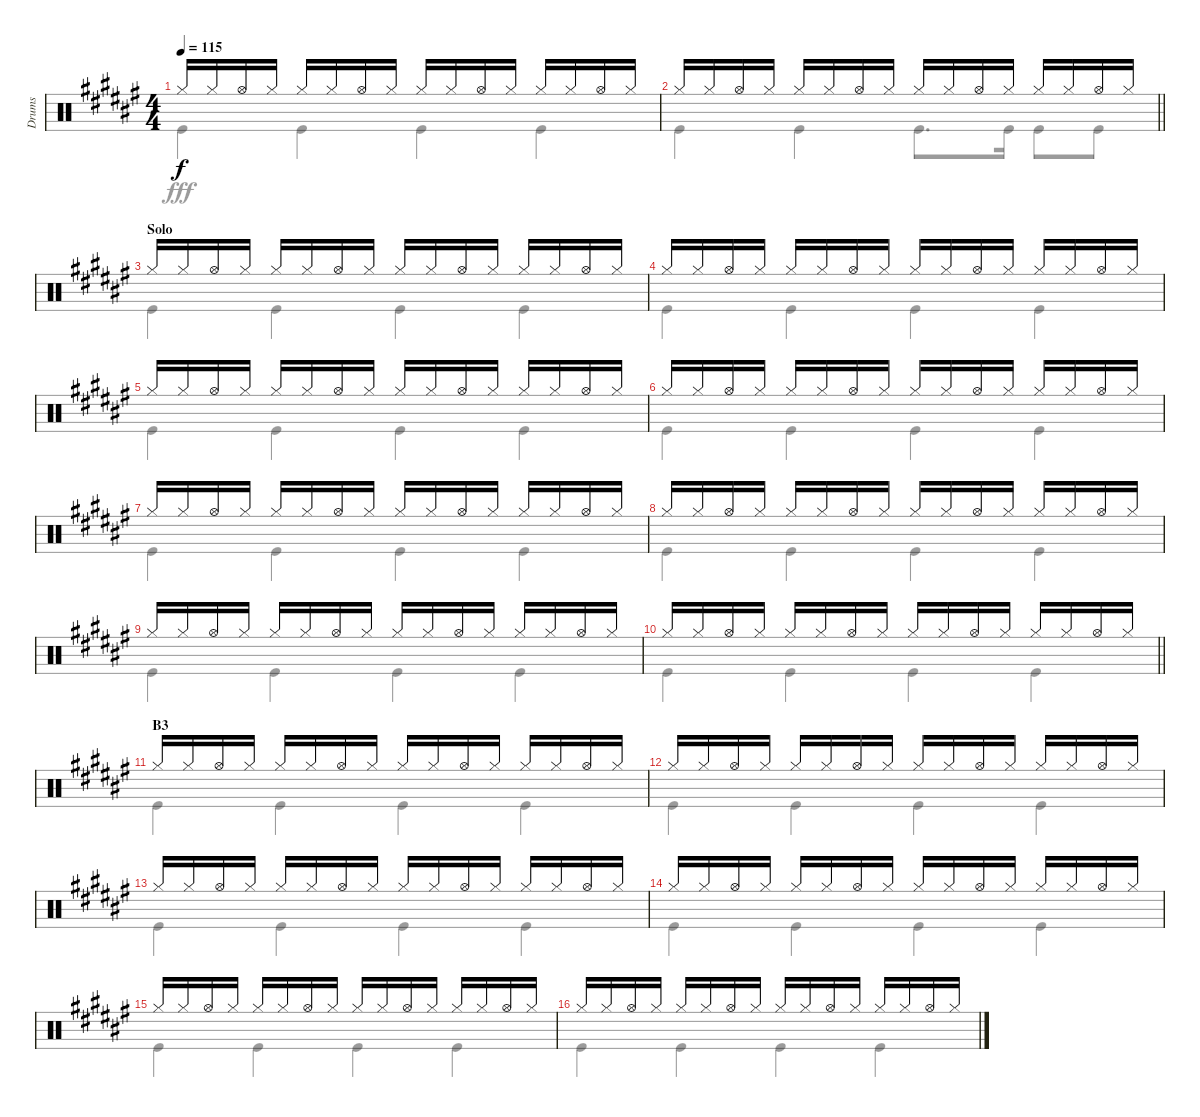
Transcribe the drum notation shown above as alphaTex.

\track ("Drums" "Drums") {instrument percussion}
\staff {score}
\articulation defaults
\voice
\ts (4 4)
\tempo 115
\clef neutral
\ks f# "Hi-Hat (closed)".16{dy f} "Hi-Hat (closed)".16 "Hi-Hat (open)".16 "Hi-Hat (closed)".16 "Hi-Hat (closed)".16 "Hi-Hat (closed)".16 "Hi-Hat (open)".16 "Hi-Hat (closed)".16 "Hi-Hat (closed)".16 "Hi-Hat (closed)".16 "Hi-Hat (open)".16 "Hi-Hat (closed)".16 "Hi-Hat (closed)".16 "Hi-Hat (closed)".16 "Hi-Hat (open)".16 "Hi-Hat (closed)".16
|
\barLineRight lightlight "Hi-Hat (closed)".16 "Hi-Hat (closed)".16 "Hi-Hat (open)".16 "Hi-Hat (closed)".16 "Hi-Hat (closed)".16 "Hi-Hat (closed)".16 "Hi-Hat (open)".16 "Hi-Hat (closed)".16 "Hi-Hat (closed)".16 "Hi-Hat (closed)".16 "Hi-Hat (open)".16 "Hi-Hat (closed)".16 "Hi-Hat (closed)".16 "Hi-Hat (closed)".16 "Hi-Hat (open)".16 "Hi-Hat (closed)".16
|
\section ("" "Solo")
"Hi-Hat (closed)".16 "Hi-Hat (closed)".16 "Hi-Hat (open)".16 "Hi-Hat (closed)".16 "Hi-Hat (closed)".16 "Hi-Hat (closed)".16 "Hi-Hat (open)".16 "Hi-Hat (closed)".16 "Hi-Hat (closed)".16 "Hi-Hat (closed)".16 "Hi-Hat (open)".16 "Hi-Hat (closed)".16 "Hi-Hat (closed)".16 "Hi-Hat (closed)".16 "Hi-Hat (open)".16 "Hi-Hat (closed)".16 |
"Hi-Hat (closed)".16 "Hi-Hat (closed)".16 "Hi-Hat (open)".16 "Hi-Hat (closed)".16 "Hi-Hat (closed)".16 "Hi-Hat (closed)".16 "Hi-Hat (open)".16 "Hi-Hat (closed)".16 "Hi-Hat (closed)".16 "Hi-Hat (closed)".16 "Hi-Hat (open)".16 "Hi-Hat (closed)".16 "Hi-Hat (closed)".16 "Hi-Hat (closed)".16 "Hi-Hat (open)".16 "Hi-Hat (closed)".16 |
"Hi-Hat (closed)".16 "Hi-Hat (closed)".16 "Hi-Hat (open)".16 "Hi-Hat (closed)".16 "Hi-Hat (closed)".16 "Hi-Hat (closed)".16 "Hi-Hat (open)".16 "Hi-Hat (closed)".16 "Hi-Hat (closed)".16 "Hi-Hat (closed)".16 "Hi-Hat (open)".16 "Hi-Hat (closed)".16 "Hi-Hat (closed)".16 "Hi-Hat (closed)".16 "Hi-Hat (open)".16 "Hi-Hat (closed)".16 |
"Hi-Hat (closed)".16 "Hi-Hat (closed)".16 "Hi-Hat (open)".16 "Hi-Hat (closed)".16 "Hi-Hat (closed)".16 "Hi-Hat (closed)".16 "Hi-Hat (open)".16 "Hi-Hat (closed)".16 "Hi-Hat (closed)".16 "Hi-Hat (closed)".16 "Hi-Hat (open)".16 "Hi-Hat (closed)".16 "Hi-Hat (closed)".16 "Hi-Hat (closed)".16 "Hi-Hat (open)".16 "Hi-Hat (closed)".16 |
"Hi-Hat (closed)".16 "Hi-Hat (closed)".16 "Hi-Hat (open)".16 "Hi-Hat (closed)".16 "Hi-Hat (closed)".16 "Hi-Hat (closed)".16 "Hi-Hat (open)".16 "Hi-Hat (closed)".16 "Hi-Hat (closed)".16 "Hi-Hat (closed)".16 "Hi-Hat (open)".16 "Hi-Hat (closed)".16 "Hi-Hat (closed)".16 "Hi-Hat (closed)".16 "Hi-Hat (open)".16 "Hi-Hat (closed)".16 |
"Hi-Hat (closed)".16 "Hi-Hat (closed)".16 "Hi-Hat (open)".16 "Hi-Hat (closed)".16 "Hi-Hat (closed)".16 "Hi-Hat (closed)".16 "Hi-Hat (open)".16 "Hi-Hat (closed)".16 "Hi-Hat (closed)".16 "Hi-Hat (closed)".16 "Hi-Hat (open)".16 "Hi-Hat (closed)".16 "Hi-Hat (closed)".16 "Hi-Hat (closed)".16 "Hi-Hat (open)".16 "Hi-Hat (closed)".16 |
"Hi-Hat (closed)".16 "Hi-Hat (closed)".16 "Hi-Hat (open)".16 "Hi-Hat (closed)".16 "Hi-Hat (closed)".16 "Hi-Hat (closed)".16 "Hi-Hat (open)".16 "Hi-Hat (closed)".16 "Hi-Hat (closed)".16 "Hi-Hat (closed)".16 "Hi-Hat (open)".16 "Hi-Hat (closed)".16 "Hi-Hat (closed)".16 "Hi-Hat (closed)".16 "Hi-Hat (open)".16 "Hi-Hat (closed)".16 |
\barLineRight lightlight "Hi-Hat (closed)".16 "Hi-Hat (closed)".16 "Hi-Hat (open)".16 "Hi-Hat (closed)".16 "Hi-Hat (closed)".16 "Hi-Hat (closed)".16 "Hi-Hat (open)".16 "Hi-Hat (closed)".16 "Hi-Hat (closed)".16 "Hi-Hat (closed)".16 "Hi-Hat (open)".16 "Hi-Hat (closed)".16 "Hi-Hat (closed)".16 "Hi-Hat (closed)".16 "Hi-Hat (open)".16 "Hi-Hat (closed)".16
|
\section ("" "B3")
"Hi-Hat (closed)".16 "Hi-Hat (closed)".16 "Hi-Hat (open)".16 "Hi-Hat (closed)".16 "Hi-Hat (closed)".16 "Hi-Hat (closed)".16 "Hi-Hat (open)".16 "Hi-Hat (closed)".16 "Hi-Hat (closed)".16 "Hi-Hat (closed)".16 "Hi-Hat (open)".16 "Hi-Hat (closed)".16 "Hi-Hat (closed)".16 "Hi-Hat (closed)".16 "Hi-Hat (open)".16 "Hi-Hat (closed)".16 |
"Hi-Hat (closed)".16 "Hi-Hat (closed)".16 "Hi-Hat (open)".16 "Hi-Hat (closed)".16 "Hi-Hat (closed)".16 "Hi-Hat (closed)".16 "Hi-Hat (open)".16 "Hi-Hat (closed)".16 "Hi-Hat (closed)".16 "Hi-Hat (closed)".16 "Hi-Hat (open)".16 "Hi-Hat (closed)".16 "Hi-Hat (closed)".16 "Hi-Hat (closed)".16 "Hi-Hat (open)".16 "Hi-Hat (closed)".16 |
"Hi-Hat (closed)".16 "Hi-Hat (closed)".16 "Hi-Hat (open)".16 "Hi-Hat (closed)".16 "Hi-Hat (closed)".16 "Hi-Hat (closed)".16 "Hi-Hat (open)".16 "Hi-Hat (closed)".16 "Hi-Hat (closed)".16 "Hi-Hat (closed)".16 "Hi-Hat (open)".16 "Hi-Hat (closed)".16 "Hi-Hat (closed)".16 "Hi-Hat (closed)".16 "Hi-Hat (open)".16 "Hi-Hat (closed)".16 |
"Hi-Hat (closed)".16 "Hi-Hat (closed)".16 "Hi-Hat (open)".16 "Hi-Hat (closed)".16 "Hi-Hat (closed)".16 "Hi-Hat (closed)".16 "Hi-Hat (open)".16 "Hi-Hat (closed)".16 "Hi-Hat (closed)".16 "Hi-Hat (closed)".16 "Hi-Hat (open)".16 "Hi-Hat (closed)".16 "Hi-Hat (closed)".16 "Hi-Hat (closed)".16 "Hi-Hat (open)".16 "Hi-Hat (closed)".16 |
"Hi-Hat (closed)".16 "Hi-Hat (closed)".16 "Hi-Hat (open)".16 "Hi-Hat (closed)".16 "Hi-Hat (closed)".16 "Hi-Hat (closed)".16 "Hi-Hat (open)".16 "Hi-Hat (closed)".16 "Hi-Hat (closed)".16 "Hi-Hat (closed)".16 "Hi-Hat (open)".16 "Hi-Hat (closed)".16 "Hi-Hat (closed)".16 "Hi-Hat (closed)".16 "Hi-Hat (open)".16 "Hi-Hat (closed)".16 |
"Hi-Hat (closed)".16 "Hi-Hat (closed)".16 "Hi-Hat (open)".16 "Hi-Hat (closed)".16 "Hi-Hat (closed)".16 "Hi-Hat (closed)".16 "Hi-Hat (open)".16 "Hi-Hat (closed)".16 "Hi-Hat (closed)".16 "Hi-Hat (closed)".16 "Hi-Hat (open)".16 "Hi-Hat (closed)".16 "Hi-Hat (closed)".16 "Hi-Hat (closed)".16 "Hi-Hat (open)".16 "Hi-Hat (closed)".16
\voice
\clef neutral
\ottava regular
\simile none
\ks f# "Kick (hit)".4{dy fff} "Kick (hit)".4 "Kick (hit)".4 "Kick (hit)".4
|
\barLineRight lightlight "Kick (hit)".4 "Kick (hit)".4 "Kick (hit)".8{d} "Kick (hit)".16 "Kick (hit)".8 "Kick (hit)".8
|
"Kick (hit)".4 "Kick (hit)".4 "Kick (hit)".4 "Kick (hit)".4 |
"Kick (hit)".4 "Kick (hit)".4 "Kick (hit)".4 "Kick (hit)".4 |
"Kick (hit)".4 "Kick (hit)".4 "Kick (hit)".4 "Kick (hit)".4 |
"Kick (hit)".4 "Kick (hit)".4 "Kick (hit)".4 "Kick (hit)".4 |
"Kick (hit)".4 "Kick (hit)".4 "Kick (hit)".4 "Kick (hit)".4 |
"Kick (hit)".4 "Kick (hit)".4 "Kick (hit)".4 "Kick (hit)".4 |
"Kick (hit)".4 "Kick (hit)".4 "Kick (hit)".4 "Kick (hit)".4 |
\barLineRight lightlight "Kick (hit)".4 "Kick (hit)".4 "Kick (hit)".4 "Kick (hit)".4
|
"Kick (hit)".4 "Kick (hit)".4 "Kick (hit)".4 "Kick (hit)".4 |
"Kick (hit)".4 "Kick (hit)".4 "Kick (hit)".4 "Kick (hit)".4 |
"Kick (hit)".4 "Kick (hit)".4 "Kick (hit)".4 "Kick (hit)".4 |
"Kick (hit)".4 "Kick (hit)".4 "Kick (hit)".4 "Kick (hit)".4 |
"Kick (hit)".4 "Kick (hit)".4 "Kick (hit)".4 "Kick (hit)".4 |
"Kick (hit)".4 "Kick (hit)".4 "Kick (hit)".4 "Kick (hit)".4
